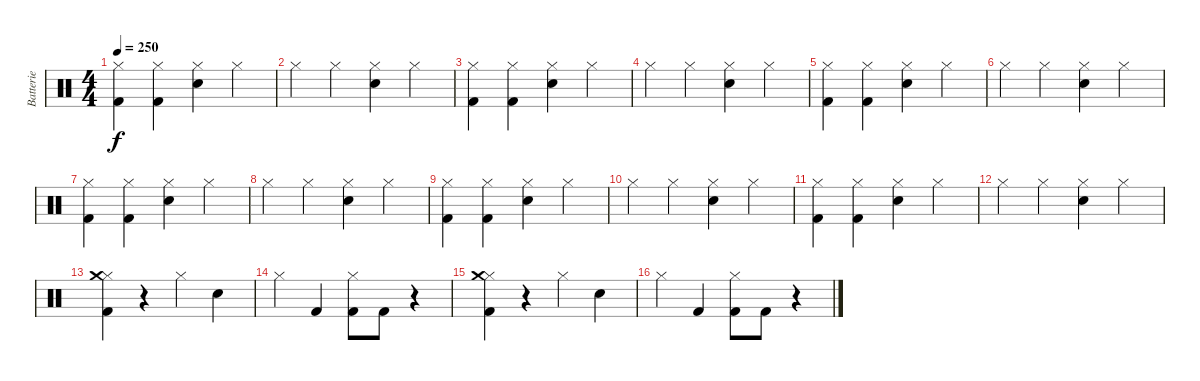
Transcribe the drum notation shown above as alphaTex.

\track ("Batterie" "Batterie") {instrument percussion}
\staff {score}
\articulation defaults
\ts (4 4)
\tempo 250
\clef neutral
\ks c
("Hi-Hat (closed)" "Kick (hit) 2").4{dy f} ("Hi-Hat (closed)" "Kick (hit) 2").4 ("Hi-Hat (closed)" "Electric Snare (hit)").4 "Hi-Hat (closed)".4 |
"Hi-Hat (closed)".4 "Hi-Hat (closed)".4 ("Hi-Hat (closed)" "Electric Snare (hit)").4 "Hi-Hat (closed)".4 |
("Hi-Hat (closed)" "Kick (hit) 2").4 ("Hi-Hat (closed)" "Kick (hit) 2").4 ("Hi-Hat (closed)" "Electric Snare (hit)").4 "Hi-Hat (closed)".4 |
"Hi-Hat (closed)".4 "Hi-Hat (closed)".4 ("Hi-Hat (closed)" "Electric Snare (hit)").4 "Hi-Hat (closed)".4 |
("Hi-Hat (closed)" "Kick (hit) 2").4 ("Hi-Hat (closed)" "Kick (hit) 2").4 ("Hi-Hat (closed)" "Electric Snare (hit)").4 "Hi-Hat (closed)".4 |
"Hi-Hat (closed)".4 "Hi-Hat (closed)".4 ("Hi-Hat (closed)" "Electric Snare (hit)").4 "Hi-Hat (closed)".4 |
("Hi-Hat (closed)" "Kick (hit) 2").4 ("Hi-Hat (closed)" "Kick (hit) 2").4 ("Hi-Hat (closed)" "Electric Snare (hit)").4 "Hi-Hat (closed)".4 |
"Hi-Hat (closed)".4 "Hi-Hat (closed)".4 ("Hi-Hat (closed)" "Electric Snare (hit)").4 "Hi-Hat (closed)".4 |
("Hi-Hat (closed)" "Kick (hit) 2").4 ("Hi-Hat (closed)" "Kick (hit) 2").4 ("Hi-Hat (closed)" "Electric Snare (hit)").4 "Hi-Hat (closed)".4 |
"Hi-Hat (closed)".4 "Hi-Hat (closed)".4 ("Hi-Hat (closed)" "Electric Snare (hit)").4 "Hi-Hat (closed)".4 |
("Hi-Hat (closed)" "Kick (hit) 2").4 ("Hi-Hat (closed)" "Kick (hit) 2").4 ("Hi-Hat (closed)" "Electric Snare (hit)").4 "Hi-Hat (closed)".4 |
"Hi-Hat (closed)".4 "Hi-Hat (closed)".4 ("Hi-Hat (closed)" "Electric Snare (hit)").4 "Hi-Hat (closed)".4 |
("Hi-Hat (closed)" "Crash medium (hit)" "Kick (hit) 2").4 r.4 "Hi-Hat (closed)".4 "Electric Snare (hit)".4 |
"Hi-Hat (closed)".4 "Kick (hit) 2".4 ("Hi-Hat (closed)" "Kick (hit) 2").8 "Kick (hit) 2".8 r.4 |
("Hi-Hat (closed)" "Crash medium (hit)" "Kick (hit) 2").4 r.4 "Hi-Hat (closed)".4 "Electric Snare (hit)".4 |
"Hi-Hat (closed)".4 "Kick (hit) 2".4 ("Hi-Hat (closed)" "Kick (hit) 2").8 "Kick (hit) 2".8 r.4
